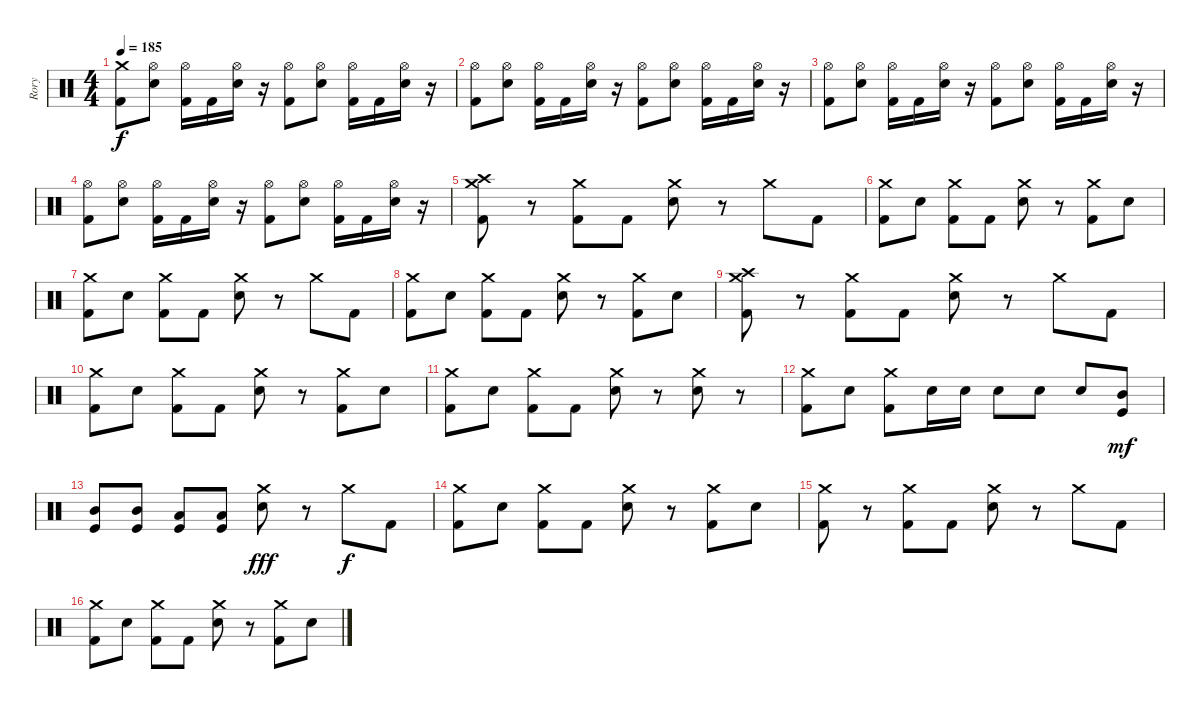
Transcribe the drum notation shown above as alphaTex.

\track ("Rory" "Rory") {instrument percussion}
\staff {score}
\articulation defaults
\ts (4 4)
\tempo 185
\clef neutral
\ks c
("Crash medium (hit)" "Kick (hit) 2").8{dy f} ("Hi-Hat (open)" "Electric Snare (hit)").8 ("Hi-Hat (open)" "Kick (hit) 2").16 "Kick (hit) 2".16 ("Hi-Hat (open)" "Electric Snare (hit)").16 r.16 ("Hi-Hat (open)" "Kick (hit) 2").8 ("Hi-Hat (open)" "Electric Snare (hit)").8 ("Hi-Hat (open)" "Kick (hit) 2").16 "Kick (hit) 2".16 ("Hi-Hat (open)" "Electric Snare (hit)").16 r.16 |
("Hi-Hat (open)" "Kick (hit) 2").8 ("Hi-Hat (open)" "Electric Snare (hit)").8 ("Hi-Hat (open)" "Kick (hit) 2").16 "Kick (hit) 2".16 ("Hi-Hat (open)" "Electric Snare (hit)").16 r.16 ("Hi-Hat (open)" "Kick (hit) 2").8 ("Hi-Hat (open)" "Electric Snare (hit)").8 ("Hi-Hat (open)" "Kick (hit) 2").16 "Kick (hit) 2".16 ("Hi-Hat (open)" "Electric Snare (hit)").16 r.16 |
("Hi-Hat (open)" "Kick (hit) 2").8 ("Hi-Hat (open)" "Electric Snare (hit)").8 ("Hi-Hat (open)" "Kick (hit) 2").16 "Kick (hit) 2".16 ("Hi-Hat (open)" "Electric Snare (hit)").16 r.16 ("Hi-Hat (open)" "Kick (hit) 2").8 ("Hi-Hat (open)" "Electric Snare (hit)").8 ("Hi-Hat (open)" "Kick (hit) 2").16 "Kick (hit) 2".16 ("Hi-Hat (open)" "Electric Snare (hit)").16 r.16 |
("Hi-Hat (open)" "Kick (hit) 2").8 ("Hi-Hat (open)" "Electric Snare (hit)").8 ("Hi-Hat (open)" "Kick (hit) 2").16 "Kick (hit) 2".16 ("Hi-Hat (open)" "Electric Snare (hit)").16 r.16 ("Hi-Hat (open)" "Kick (hit) 2").8 ("Hi-Hat (open)" "Electric Snare (hit)").8 ("Hi-Hat (open)" "Kick (hit) 2").16 "Kick (hit) 2".16 ("Hi-Hat (open)" "Electric Snare (hit)").16 r.16 |
("Crash high (hit)" "Crash medium (hit)" "Kick (hit) 2").8 r.8 ("Crash medium (hit)" "Kick (hit) 2").8 "Kick (hit) 2".8 ("Crash medium (hit)" "Electric Snare (hit)").8 r.8 "Crash medium (hit)".8 "Kick (hit) 2".8 |
("Crash medium (hit)" "Kick (hit) 2").8 "Electric Snare (hit)".8 ("Crash medium (hit)" "Kick (hit) 2").8 "Kick (hit) 2".8 ("Crash medium (hit)" "Electric Snare (hit)").8 r.8 ("Crash medium (hit)" "Kick (hit) 2").8 "Electric Snare (hit)".8 |
("Crash medium (hit)" "Kick (hit) 2").8 "Electric Snare (hit)".8 ("Crash medium (hit)" "Kick (hit) 2").8 "Kick (hit) 2".8 ("Crash medium (hit)" "Electric Snare (hit)").8 r.8 "Crash medium (hit)".8 "Kick (hit) 2".8 |
("Crash medium (hit)" "Kick (hit) 2").8 "Electric Snare (hit)".8 ("Crash medium (hit)" "Kick (hit) 2").8 "Kick (hit) 2".8 ("Crash medium (hit)" "Electric Snare (hit)").8 r.8 ("Crash medium (hit)" "Kick (hit) 2").8 "Electric Snare (hit)".8 |
("Crash high (hit)" "Crash medium (hit)" "Kick (hit) 2").8 r.8 ("Crash medium (hit)" "Kick (hit) 2").8 "Kick (hit) 2".8 ("Crash medium (hit)" "Electric Snare (hit)").8 r.8 "Crash medium (hit)".8 "Kick (hit) 2".8 |
("Crash medium (hit)" "Kick (hit) 2").8 "Electric Snare (hit)".8 ("Crash medium (hit)" "Kick (hit) 2").8 "Kick (hit) 2".8 ("Crash medium (hit)" "Electric Snare (hit)").8 r.8 ("Crash medium (hit)" "Kick (hit) 2").8 "Electric Snare (hit)".8 |
("Crash medium (hit)" "Kick (hit) 2").8 "Electric Snare (hit)".8 ("Crash medium (hit)" "Kick (hit) 2").8 "Kick (hit) 2".8 ("Crash medium (hit)" "Electric Snare (hit)").8 r.8 ("Crash medium (hit)" "Electric Snare (hit)").8 r.8 |
("Crash medium (hit)" "Kick (hit) 2").8 "Electric Snare (hit)".8 ("Crash medium (hit)" "Kick (hit) 2").8 "Electric Snare (hit)".16 "Electric Snare (hit)".16 "Electric Snare (hit)".8 "Electric Snare (hit)".8 "Electric Snare (hit)".8 ("Mid Tom (hit)" "Kick (hit)").8{dy mf} |
("Mid Tom (hit)" "Kick (hit)").8 ("Mid Tom (hit)" "Kick (hit)").8 ("Low Tom (hit)" "Kick (hit)").8 ("Low Tom (hit)" "Kick (hit)").8 ("Crash medium (hit)" "Electric Snare (hit)").8{dy fff} r.8 "Crash medium (hit)".8{dy f} "Kick (hit) 2".8 |
("Crash medium (hit)" "Kick (hit) 2").8 "Electric Snare (hit)".8 ("Crash medium (hit)" "Kick (hit) 2").8 "Kick (hit) 2".8 ("Crash medium (hit)" "Electric Snare (hit)").8 r.8 ("Crash medium (hit)" "Kick (hit) 2").8 "Electric Snare (hit)".8 |
("Crash medium (hit)" "Kick (hit) 2").8 r.8 ("Crash medium (hit)" "Kick (hit) 2").8 "Kick (hit) 2".8 ("Crash medium (hit)" "Electric Snare (hit)").8 r.8 "Crash medium (hit)".8 "Kick (hit) 2".8 |
("Crash medium (hit)" "Kick (hit) 2").8 "Electric Snare (hit)".8 ("Crash medium (hit)" "Kick (hit) 2").8 "Kick (hit) 2".8 ("Crash medium (hit)" "Electric Snare (hit)").8 r.8 ("Crash medium (hit)" "Kick (hit) 2").8 "Electric Snare (hit)".8
